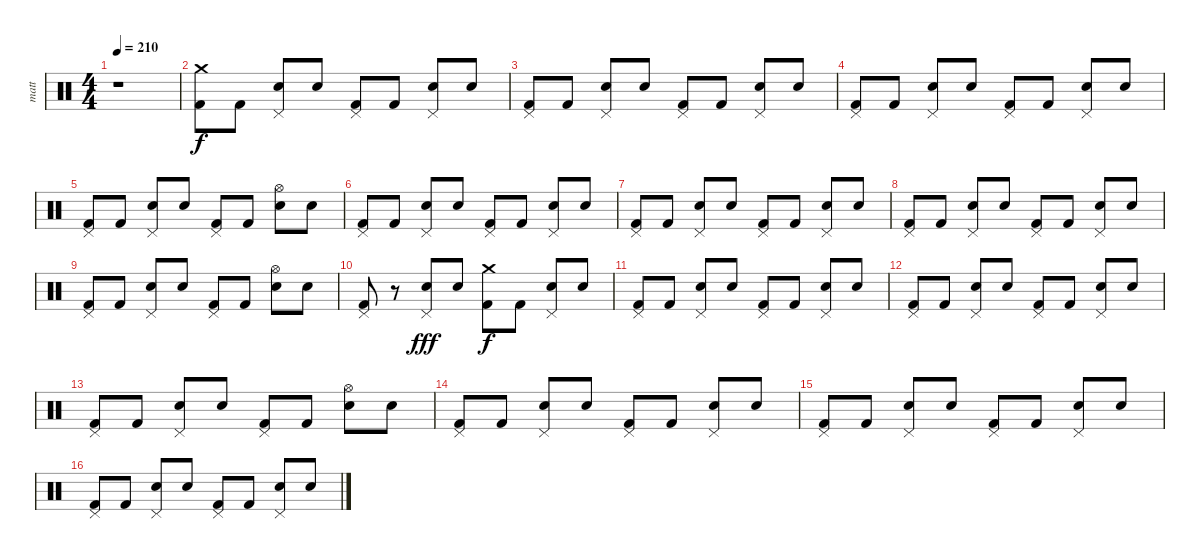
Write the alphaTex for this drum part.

\track ("matt" "matt") {instrument percussion}
\staff {score}
\articulation defaults
\ts (4 4)
\tempo 210
\clef neutral
\ks c
r.1{dy f} |
("Crash medium (hit)" "Kick (hit) 2").8 "Kick (hit) 2".8 ("Pedal Hi-Hat (hit)" "Electric Snare (hit)").8 "Electric Snare (hit)".8 ("Pedal Hi-Hat (hit)" "Kick (hit) 2").8 "Kick (hit) 2".8 ("Pedal Hi-Hat (hit)" "Electric Snare (hit)").8 "Electric Snare (hit)".8 |
("Pedal Hi-Hat (hit)" "Kick (hit) 2").8 "Kick (hit) 2".8 ("Pedal Hi-Hat (hit)" "Electric Snare (hit)").8 "Electric Snare (hit)".8 ("Pedal Hi-Hat (hit)" "Kick (hit) 2").8 "Kick (hit) 2".8 ("Pedal Hi-Hat (hit)" "Electric Snare (hit)").8 "Electric Snare (hit)".8 |
("Pedal Hi-Hat (hit)" "Kick (hit) 2").8 "Kick (hit) 2".8 ("Pedal Hi-Hat (hit)" "Electric Snare (hit)").8 "Electric Snare (hit)".8 ("Pedal Hi-Hat (hit)" "Kick (hit) 2").8 "Kick (hit) 2".8 ("Pedal Hi-Hat (hit)" "Electric Snare (hit)").8 "Electric Snare (hit)".8 |
("Pedal Hi-Hat (hit)" "Kick (hit) 2").8 "Kick (hit) 2".8 ("Pedal Hi-Hat (hit)" "Electric Snare (hit)").8 "Electric Snare (hit)".8 ("Pedal Hi-Hat (hit)" "Kick (hit) 2").8 "Kick (hit) 2".8 ("Hi-Hat (open)" "Electric Snare (hit)").8 "Electric Snare (hit)".8 |
("Pedal Hi-Hat (hit)" "Kick (hit) 2").8 "Kick (hit) 2".8 ("Pedal Hi-Hat (hit)" "Electric Snare (hit)").8 "Electric Snare (hit)".8 ("Pedal Hi-Hat (hit)" "Kick (hit) 2").8 "Kick (hit) 2".8 ("Pedal Hi-Hat (hit)" "Electric Snare (hit)").8 "Electric Snare (hit)".8 |
("Pedal Hi-Hat (hit)" "Kick (hit) 2").8 "Kick (hit) 2".8 ("Pedal Hi-Hat (hit)" "Electric Snare (hit)").8 "Electric Snare (hit)".8 ("Pedal Hi-Hat (hit)" "Kick (hit) 2").8 "Kick (hit) 2".8 ("Pedal Hi-Hat (hit)" "Electric Snare (hit)").8 "Electric Snare (hit)".8 |
("Pedal Hi-Hat (hit)" "Kick (hit) 2").8 "Kick (hit) 2".8 ("Pedal Hi-Hat (hit)" "Electric Snare (hit)").8 "Electric Snare (hit)".8 ("Pedal Hi-Hat (hit)" "Kick (hit) 2").8 "Kick (hit) 2".8 ("Pedal Hi-Hat (hit)" "Electric Snare (hit)").8 "Electric Snare (hit)".8 |
("Pedal Hi-Hat (hit)" "Kick (hit) 2").8 "Kick (hit) 2".8 ("Pedal Hi-Hat (hit)" "Electric Snare (hit)").8 "Electric Snare (hit)".8 ("Pedal Hi-Hat (hit)" "Kick (hit) 2").8 "Kick (hit) 2".8 ("Hi-Hat (open)" "Electric Snare (hit)").8 "Electric Snare (hit)".8 |
("Pedal Hi-Hat (hit)" "Kick (hit) 2").8 r.8 ("Pedal Hi-Hat (hit)" "Electric Snare (hit)").8{dy fff} "Electric Snare (hit)".8 ("Crash medium (hit)" "Kick (hit) 2").8{dy f} "Kick (hit) 2".8 ("Pedal Hi-Hat (hit)" "Electric Snare (hit)").8 "Electric Snare (hit)".8 |
("Pedal Hi-Hat (hit)" "Kick (hit) 2").8 "Kick (hit) 2".8 ("Pedal Hi-Hat (hit)" "Electric Snare (hit)").8 "Electric Snare (hit)".8 ("Pedal Hi-Hat (hit)" "Kick (hit) 2").8 "Kick (hit) 2".8 ("Pedal Hi-Hat (hit)" "Electric Snare (hit)").8 "Electric Snare (hit)".8 |
("Pedal Hi-Hat (hit)" "Kick (hit) 2").8 "Kick (hit) 2".8 ("Pedal Hi-Hat (hit)" "Electric Snare (hit)").8 "Electric Snare (hit)".8 ("Pedal Hi-Hat (hit)" "Kick (hit) 2").8 "Kick (hit) 2".8 ("Pedal Hi-Hat (hit)" "Electric Snare (hit)").8 "Electric Snare (hit)".8 |
("Pedal Hi-Hat (hit)" "Kick (hit) 2").8 "Kick (hit) 2".8 ("Pedal Hi-Hat (hit)" "Electric Snare (hit)").8 "Electric Snare (hit)".8 ("Pedal Hi-Hat (hit)" "Kick (hit) 2").8 "Kick (hit) 2".8 ("Hi-Hat (open)" "Electric Snare (hit)").8 "Electric Snare (hit)".8 |
("Pedal Hi-Hat (hit)" "Kick (hit) 2").8 "Kick (hit) 2".8 ("Pedal Hi-Hat (hit)" "Electric Snare (hit)").8 "Electric Snare (hit)".8 ("Pedal Hi-Hat (hit)" "Kick (hit) 2").8 "Kick (hit) 2".8 ("Pedal Hi-Hat (hit)" "Electric Snare (hit)").8 "Electric Snare (hit)".8 |
("Pedal Hi-Hat (hit)" "Kick (hit) 2").8 "Kick (hit) 2".8 ("Pedal Hi-Hat (hit)" "Electric Snare (hit)").8 "Electric Snare (hit)".8 ("Pedal Hi-Hat (hit)" "Kick (hit) 2").8 "Kick (hit) 2".8 ("Pedal Hi-Hat (hit)" "Electric Snare (hit)").8 "Electric Snare (hit)".8 |
("Pedal Hi-Hat (hit)" "Kick (hit) 2").8 "Kick (hit) 2".8 ("Pedal Hi-Hat (hit)" "Electric Snare (hit)").8 "Electric Snare (hit)".8 ("Pedal Hi-Hat (hit)" "Kick (hit) 2").8 "Kick (hit) 2".8 ("Pedal Hi-Hat (hit)" "Electric Snare (hit)").8 "Electric Snare (hit)".8
